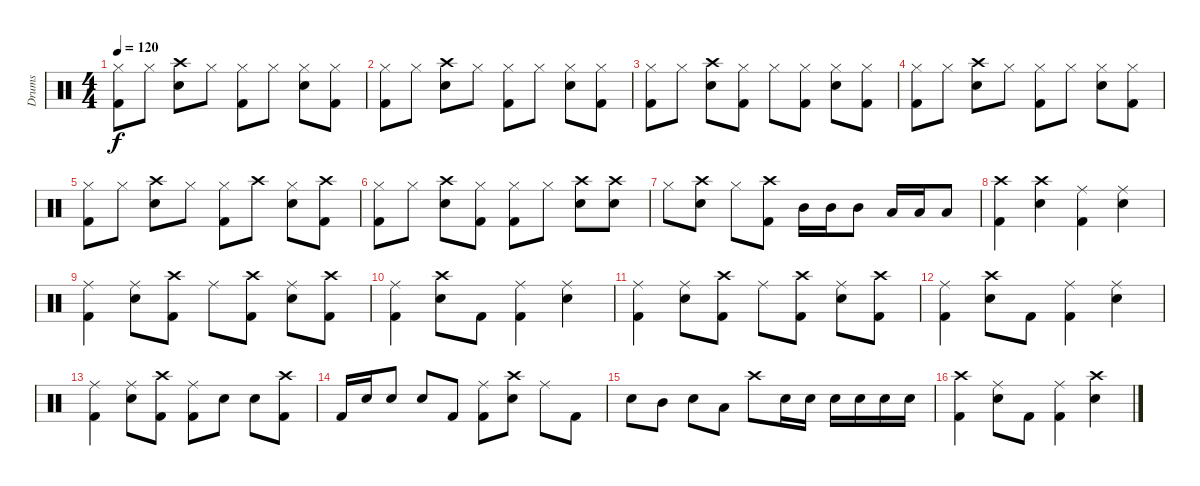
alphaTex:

\track ("Drums" "Drums") {instrument percussion}
\staff {score}
\articulation defaults
\ts (4 4)
\tempo 120
\clef neutral
\ks c
("Hi-Hat (closed)" "Kick (hit) 2").8{dy f} "Hi-Hat (closed)".8 ("Crash high (hit)" "Electric Snare (hit)").8 "Hi-Hat (closed)".8 ("Hi-Hat (closed)" "Kick (hit) 2").8 "Hi-Hat (closed)".8 ("Hi-Hat (closed)" "Electric Snare (hit)").8 ("Hi-Hat (closed)" "Kick (hit) 2").8 |
("Hi-Hat (closed)" "Kick (hit) 2").8 "Hi-Hat (closed)".8 ("Crash high (hit)" "Electric Snare (hit)").8 "Hi-Hat (closed)".8 ("Hi-Hat (closed)" "Kick (hit) 2").8 "Hi-Hat (closed)".8 ("Hi-Hat (closed)" "Electric Snare (hit)").8 ("Hi-Hat (closed)" "Kick (hit) 2").8 |
("Hi-Hat (closed)" "Kick (hit) 2").8 "Hi-Hat (closed)".8 ("Crash high (hit)" "Electric Snare (hit)").8 ("Hi-Hat (closed)" "Kick (hit) 2").8 "Hi-Hat (closed)".8 ("Hi-Hat (closed)" "Kick (hit) 2").8 ("Hi-Hat (closed)" "Electric Snare (hit)").8 ("Hi-Hat (closed)" "Kick (hit) 2").8 |
("Hi-Hat (closed)" "Kick (hit) 2").8 "Hi-Hat (closed)".8 ("Crash high (hit)" "Electric Snare (hit)").8 "Hi-Hat (closed)".8 ("Hi-Hat (closed)" "Kick (hit) 2").8 "Hi-Hat (closed)".8 ("Hi-Hat (closed)" "Electric Snare (hit)").8 ("Hi-Hat (closed)" "Kick (hit) 2").8 |
("Hi-Hat (closed)" "Kick (hit) 2").8 "Hi-Hat (closed)".8 ("Crash high (hit)" "Electric Snare (hit)").8 "Hi-Hat (closed)".8 ("Hi-Hat (closed)" "Kick (hit) 2").8 "Crash high (hit)".8 ("Hi-Hat (closed)" "Electric Snare (hit)").8 ("Crash high (hit)" "Kick (hit) 2").8 |
("Hi-Hat (closed)" "Kick (hit) 2").8 "Hi-Hat (closed)".8 ("Crash high (hit)" "Electric Snare (hit)").8 ("Hi-Hat (closed)" "Kick (hit) 2").8 ("Hi-Hat (closed)" "Kick (hit) 2").8 "Hi-Hat (closed)".8 ("Crash high (hit)" "Electric Snare (hit)").8 ("Crash high (hit)" "Electric Snare (hit)").8 |
"Hi-Hat (closed)".8 ("Crash high (hit)" "Electric Snare (hit)").8 "Hi-Hat (closed)".8 ("Crash high (hit)" "Kick (hit) 2").8 "Mid Tom (hit)".16 "Mid Tom (hit)".16 "Mid Tom (hit)".8 "Low Tom (hit)".16 "Low Tom (hit)".16 "Low Tom (hit)".8 |
("Crash high (hit)" "Kick (hit) 2").4 ("Crash high (hit)" "Electric Snare (hit)").4 ("Ride (middle)" "Kick (hit) 2").4 ("Ride (middle)" "Electric Snare (hit)").4 |
("Ride (middle)" "Kick (hit) 2").4 ("Ride (middle)" "Electric Snare (hit)").8 ("Crash high (hit)" "Kick (hit) 2").8 "Ride (middle)".8 ("Crash high (hit)" "Kick (hit) 2").8 ("Ride (middle)" "Electric Snare (hit)").8 ("Crash high (hit)" "Kick (hit) 2").8 |
("Ride (middle)" "Kick (hit) 2").4 ("Crash high (hit)" "Electric Snare (hit)").8 "Kick (hit) 2".8 ("Ride (middle)" "Kick (hit) 2").4 ("Ride (middle)" "Electric Snare (hit)").4 |
("Ride (middle)" "Kick (hit) 2").4 ("Ride (middle)" "Electric Snare (hit)").8 ("Crash high (hit)" "Kick (hit) 2").8 "Ride (middle)".8 ("Crash high (hit)" "Kick (hit) 2").8 ("Ride (middle)" "Electric Snare (hit)").8 ("Crash high (hit)" "Kick (hit) 2").8 |
("Ride (middle)" "Kick (hit) 2").4 ("Crash high (hit)" "Electric Snare (hit)").8 "Kick (hit) 2".8 ("Ride (middle)" "Kick (hit) 2").4 ("Ride (middle)" "Electric Snare (hit)").4 |
("Ride (middle)" "Kick (hit) 2").4 ("Ride (middle)" "Electric Snare (hit)").8 ("Crash high (hit)" "Kick (hit) 2").8 ("Ride (middle)" "Kick (hit) 2").8 "Electric Snare (hit)".8 "Electric Snare (hit)".8 ("Crash high (hit)" "Kick (hit) 2").8 |
"Kick (hit) 2".16 "Electric Snare (hit)".16 "Electric Snare (hit)".8 "Electric Snare (hit)".8 "Kick (hit) 2".8 ("Ride (middle)" "Kick (hit) 2").8 ("Crash high (hit)" "Electric Snare (hit)").8 "Ride (middle)".8 "Kick (hit) 2".8 |
"Electric Snare (hit)".8 "Mid Tom (hit)".8 "Electric Snare (hit)".8 "Low Tom (hit)".8 "Crash high (hit)".8 "Electric Snare (hit)".16 "Electric Snare (hit)".16 "Electric Snare (hit)".16 "Electric Snare (hit)".16 "Electric Snare (hit)".16 "Electric Snare (hit)".16 |
("Crash high (hit)" "Kick (hit) 2").4 ("Ride (middle)" "Electric Snare (hit)").8 "Kick (hit) 2".8 ("Ride (middle)" "Kick (hit) 2").4 ("Crash high (hit)" "Electric Snare (hit)").4
